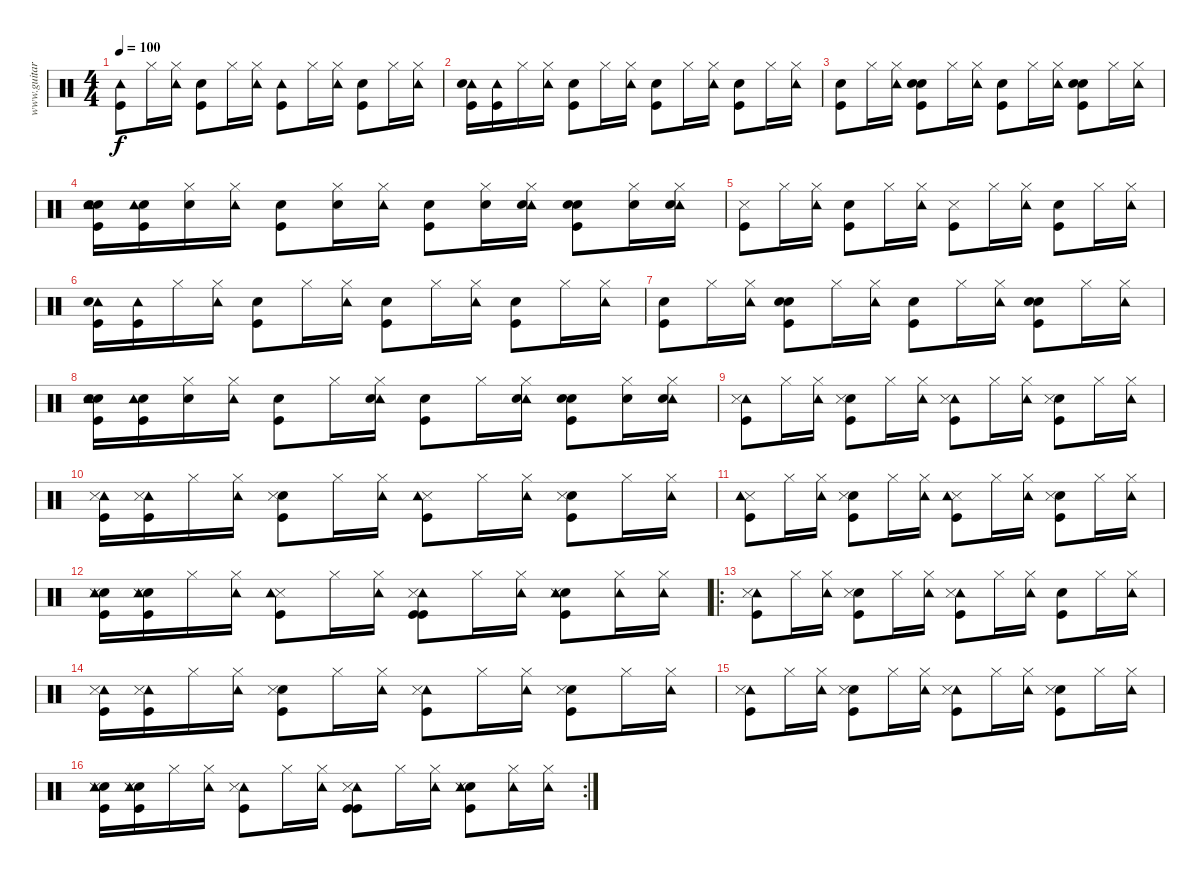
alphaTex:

\track ("www.guitarpro1.narod.ru" "www.guitar") {instrument percussion}
\staff {score}
\articulation defaults
\ts (4 4)
\tempo 100
\clef neutral
\ks c
("Kick (hit)" "Tambourine (hit)").8{dy f} "Hi-Hat (closed)".16 ("Tambourine (hit)" "Hi-Hat (closed)").16 ("Kick (hit)" "Hand Clap (hit)").8 "Hi-Hat (closed)".16 ("Tambourine (hit)" "Hi-Hat (closed)").16 ("Kick (hit)" "Tambourine (hit)").8 "Hi-Hat (closed)".16 ("Tambourine (hit)" "Hi-Hat (closed)").16 ("Kick (hit)" "Hand Clap (hit)").8 "Hi-Hat (closed)".16 ("Tambourine (hit)" "Hi-Hat (closed)").16 |
("Kick (hit)" "Tambourine (hit)" "Snare (hit) 2").16 ("Kick (hit)" "Tambourine (hit)").16 "Hi-Hat (closed)".16 ("Tambourine (hit)" "Hi-Hat (closed)").16 ("Kick (hit)" "Hand Clap (hit)").8 "Hi-Hat (closed)".16 ("Tambourine (hit)" "Hi-Hat (closed)").16 ("Kick (hit)" "Snare (hit) 2").8 "Hi-Hat (closed)".16 ("Tambourine (hit)" "Hi-Hat (closed)").16 ("Kick (hit)" "Hand Clap (hit)").8 "Hi-Hat (closed)".16 ("Tambourine (hit)" "Hi-Hat (closed)").16 |
("Kick (hit)" "Snare (hit) 2").8 "Hi-Hat (closed)".16 ("Tambourine (hit)" "Hi-Hat (closed)").16 ("Kick (hit)" "Hand Clap (hit)" "Snare (hit) 2").8 "Hi-Hat (closed)".16 ("Tambourine (hit)" "Hi-Hat (closed)").16 ("Kick (hit)" "Snare (hit) 2").8 "Hi-Hat (closed)".16 ("Tambourine (hit)" "Hi-Hat (closed)").16 ("Kick (hit)" "Hand Clap (hit)" "Snare (hit) 2").8 "Hi-Hat (closed)".16 ("Tambourine (hit)" "Hi-Hat (closed)").16 |
("Kick (hit)" "Hand Clap (hit)" "Tambourine (hit)" "Snare (hit) 2").16 ("Kick (hit)" "Hand Clap (hit)" "Tambourine (hit)").16 ("Hi-Hat (closed)" "Snare (hit) 2").16 ("Tambourine (hit)" "Hi-Hat (closed)").16 ("Kick (hit)" "Snare (hit) 2").8 ("Hi-Hat (closed)" "Snare (hit) 2").16 ("Tambourine (hit)" "Hi-Hat (closed)").16 ("Kick (hit)" "Snare (hit) 2").8 ("Hi-Hat (closed)" "Snare (hit) 2").16 ("Tambourine (hit)" "Hi-Hat (closed)" "Snare (hit) 2").16 ("Kick (hit)" "Hand Clap (hit)" "Snare (hit) 2").8 ("Hi-Hat (closed)" "Snare (hit) 2").16 ("Tambourine (hit)" "Hi-Hat (closed)" "Snare (hit) 2").16 |
("Kick (hit)" "Metronome (hit)").8 "Hi-Hat (closed)".16 ("Tambourine (hit)" "Hi-Hat (closed)").16 ("Kick (hit)" "Hand Clap (hit)").8 "Hi-Hat (closed)".16 ("Tambourine (hit)" "Hi-Hat (closed)").16 ("Kick (hit)" "Metronome (hit)").8 "Hi-Hat (closed)".16 ("Tambourine (hit)" "Hi-Hat (closed)").16 ("Kick (hit)" "Hand Clap (hit)").8 "Hi-Hat (closed)".16 ("Tambourine (hit)" "Hi-Hat (closed)").16 |
("Kick (hit)" "Tambourine (hit)" "Snare (hit) 2").16 ("Kick (hit)" "Tambourine (hit)").16 "Hi-Hat (closed)".16 ("Tambourine (hit)" "Hi-Hat (closed)").16 ("Kick (hit)" "Hand Clap (hit)").8 "Hi-Hat (closed)".16 ("Tambourine (hit)" "Hi-Hat (closed)").16 ("Kick (hit)" "Snare (hit) 2").8 "Hi-Hat (closed)".16 ("Tambourine (hit)" "Hi-Hat (closed)").16 ("Kick (hit)" "Hand Clap (hit)").8 "Hi-Hat (closed)".16 ("Tambourine (hit)" "Hi-Hat (closed)").16 |
("Kick (hit)" "Snare (hit) 2").8 "Hi-Hat (closed)".16 ("Tambourine (hit)" "Hi-Hat (closed)").16 ("Kick (hit)" "Hand Clap (hit)" "Snare (hit) 2").8 "Hi-Hat (closed)".16 ("Tambourine (hit)" "Hi-Hat (closed)").16 ("Kick (hit)" "Snare (hit) 2").8 "Hi-Hat (closed)".16 ("Tambourine (hit)" "Hi-Hat (closed)").16 ("Kick (hit)" "Hand Clap (hit)" "Snare (hit) 2").8 "Hi-Hat (closed)".16 ("Tambourine (hit)" "Hi-Hat (closed)").16 |
("Kick (hit)" "Hand Clap (hit)" "Tambourine (hit)" "Snare (hit) 2").16 ("Kick (hit)" "Hand Clap (hit)" "Tambourine (hit)").16 ("Hi-Hat (closed)" "Snare (hit) 2").16 ("Tambourine (hit)" "Hi-Hat (closed)").16 ("Kick (hit)" "Snare (hit) 2").8 "Hi-Hat (closed)".16 ("Tambourine (hit)" "Hi-Hat (closed)" "Snare (hit) 2").16 ("Kick (hit)" "Snare (hit) 2").8 "Hi-Hat (closed)".16 ("Tambourine (hit)" "Hi-Hat (closed)" "Snare (hit) 2").16 ("Kick (hit)" "Hand Clap (hit)" "Snare (hit) 2").8 ("Hi-Hat (closed)" "Snare (hit) 2").16 ("Tambourine (hit)" "Hi-Hat (closed)" "Snare (hit) 2").16 |
("Kick (hit)" "Tambourine (hit)" "Metronome (hit)").8 "Hi-Hat (closed)".16 ("Tambourine (hit)" "Hi-Hat (closed)").16 ("Kick (hit)" "Hand Clap (hit)" "Metronome (hit)").8 "Hi-Hat (closed)".16 ("Tambourine (hit)" "Hi-Hat (closed)").16 ("Kick (hit)" "Tambourine (hit)" "Metronome (hit)").8 "Hi-Hat (closed)".16 ("Tambourine (hit)" "Hi-Hat (closed)").16 ("Kick (hit)" "Hand Clap (hit)" "Metronome (hit)").8 "Hi-Hat (closed)".16 ("Tambourine (hit)" "Hi-Hat (closed)").16 |
("Kick (hit)" "Tambourine (hit)" "Metronome (hit)").16 ("Kick (hit)" "Tambourine (hit)" "Metronome (hit)").16 "Hi-Hat (closed)".16 ("Tambourine (hit)" "Hi-Hat (closed)").16 ("Kick (hit)" "Hand Clap (hit)" "Metronome (hit)").8 "Hi-Hat (closed)".16 ("Tambourine (hit)" "Hi-Hat (closed)").16 ("Kick (hit)" "Metronome (hit)" "Tambourine (hit)").8 "Hi-Hat (closed)".16 ("Tambourine (hit)" "Hi-Hat (closed)").16 ("Kick (hit)" "Hand Clap (hit)" "Metronome (hit)").8 "Hi-Hat (closed)".16 ("Tambourine (hit)" "Hi-Hat (closed)").16 |
("Kick (hit)" "Metronome (hit)" "Tambourine (hit)").8 "Hi-Hat (closed)".16 ("Tambourine (hit)" "Hi-Hat (closed)").16 ("Kick (hit)" "Hand Clap (hit)" "Metronome (hit)").8 "Hi-Hat (closed)".16 ("Tambourine (hit)" "Hi-Hat (closed)").16 ("Kick (hit)" "Metronome (hit)" "Tambourine (hit)").8 "Hi-Hat (closed)".16 ("Tambourine (hit)" "Hi-Hat (closed)").16 ("Kick (hit)" "Hand Clap (hit)" "Metronome (hit)").8 "Hi-Hat (closed)".16 ("Tambourine (hit)" "Hi-Hat (closed)").16 |
("Kick (hit)" "Hand Clap (hit)" "Tambourine (hit)" "Metronome (hit)").16 ("Kick (hit)" "Hand Clap (hit)" "Tambourine (hit)" "Metronome (hit)").16 "Hi-Hat (closed)".16 ("Tambourine (hit)" "Hi-Hat (closed)").16 ("Kick (hit)" "Metronome (hit)" "Tambourine (hit)").8 "Hi-Hat (closed)".16 ("Tambourine (hit)" "Hi-Hat (closed)").16 ("Kick (hit)" "Kick (hit)" "Tambourine (hit)" "Metronome (hit)").8 "Hi-Hat (closed)".16 ("Tambourine (hit)" "Hi-Hat (closed)").16 ("Kick (hit)" "Hand Clap (hit)" "Tambourine (hit)" "Metronome (hit)").8 ("Hi-Hat (closed)" "Tambourine (hit)").16 ("Tambourine (hit)" "Hi-Hat (closed)").16 |
\ro
("Kick (hit)" "Tambourine (hit)" "Metronome (hit)").8 "Hi-Hat (closed)".16 ("Tambourine (hit)" "Hi-Hat (closed)").16 ("Kick (hit)" "Hand Clap (hit)" "Metronome (hit)").8 "Hi-Hat (closed)".16 ("Tambourine (hit)" "Hi-Hat (closed)").16 ("Kick (hit)" "Tambourine (hit)" "Metronome (hit)").8 "Hi-Hat (closed)".16 ("Tambourine (hit)" "Hi-Hat (closed)").16 ("Kick (hit)" "Hand Clap (hit)").8 "Hi-Hat (closed)".16 ("Tambourine (hit)" "Hi-Hat (closed)").16 |
("Kick (hit)" "Tambourine (hit)" "Metronome (hit)").16 ("Kick (hit)" "Tambourine (hit)" "Metronome (hit)").16 "Hi-Hat (closed)".16 ("Tambourine (hit)" "Hi-Hat (closed)").16 ("Kick (hit)" "Hand Clap (hit)" "Metronome (hit)").8 "Hi-Hat (closed)".16 ("Tambourine (hit)" "Hi-Hat (closed)").16 ("Kick (hit)" "Tambourine (hit)" "Metronome (hit)").8 "Hi-Hat (closed)".16 ("Tambourine (hit)" "Hi-Hat (closed)").16 ("Kick (hit)" "Hand Clap (hit)" "Metronome (hit)").8 "Hi-Hat (closed)".16 ("Tambourine (hit)" "Hi-Hat (closed)").16 |
("Kick (hit)" "Tambourine (hit)" "Metronome (hit)").8 "Hi-Hat (closed)".16 ("Tambourine (hit)" "Hi-Hat (closed)").16 ("Kick (hit)" "Hand Clap (hit)" "Metronome (hit)").8 "Hi-Hat (closed)".16 ("Tambourine (hit)" "Hi-Hat (closed)").16 ("Kick (hit)" "Tambourine (hit)" "Metronome (hit)").8 "Hi-Hat (closed)".16 ("Tambourine (hit)" "Hi-Hat (closed)").16 ("Kick (hit)" "Hand Clap (hit)" "Metronome (hit)").8 "Hi-Hat (closed)".16 ("Tambourine (hit)" "Hi-Hat (closed)").16 |
\rc 2
("Kick (hit)" "Hand Clap (hit)" "Tambourine (hit)" "Metronome (hit)").16 ("Kick (hit)" "Hand Clap (hit)" "Tambourine (hit)" "Metronome (hit)").16 "Hi-Hat (closed)".16 ("Tambourine (hit)" "Hi-Hat (closed)").16 ("Kick (hit)" "Tambourine (hit)" "Metronome (hit)").8 "Hi-Hat (closed)".16 ("Tambourine (hit)" "Hi-Hat (closed)").16 ("Kick (hit)" "Kick (hit)" "Tambourine (hit)" "Metronome (hit)").8 "Hi-Hat (closed)".16 ("Tambourine (hit)" "Hi-Hat (closed)").16 ("Kick (hit)" "Hand Clap (hit)" "Tambourine (hit)" "Metronome (hit)").8 ("Hi-Hat (closed)" "Tambourine (hit)").16 ("Tambourine (hit)" "Hi-Hat (closed)").16
